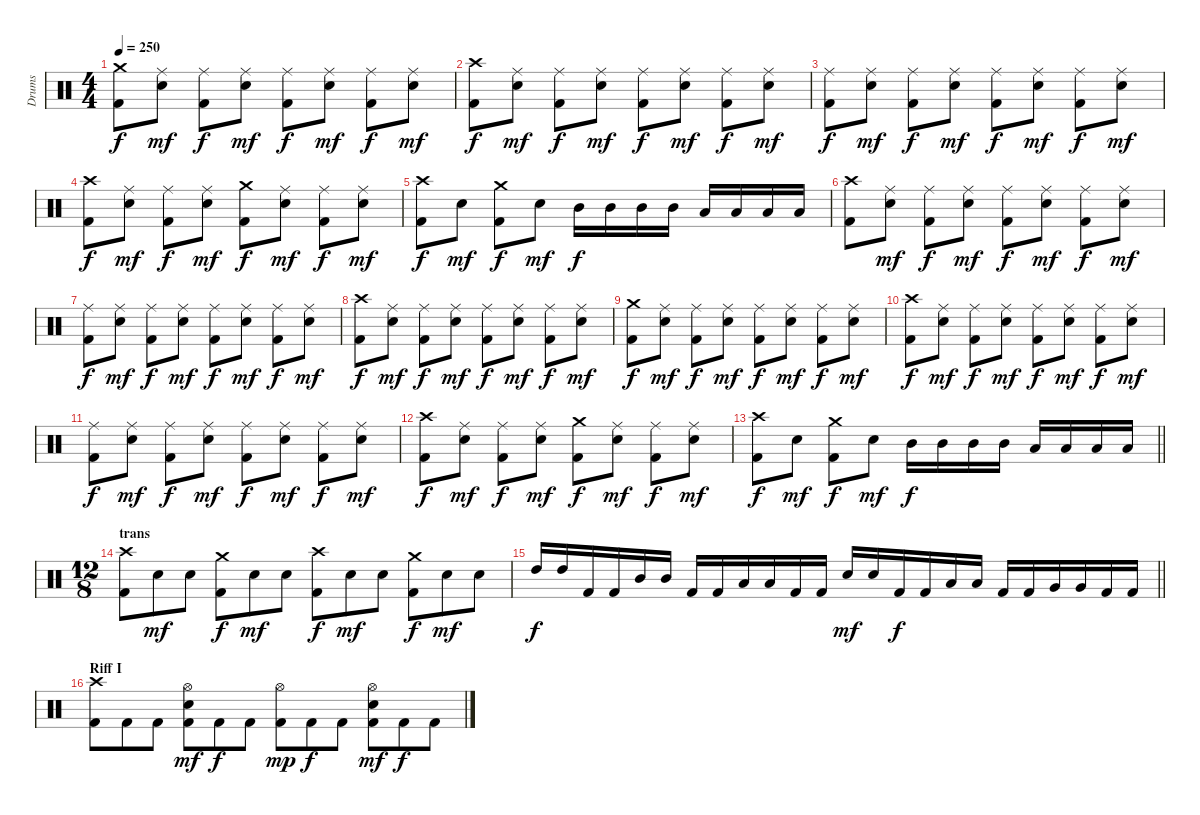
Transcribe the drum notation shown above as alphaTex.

\track ("Drums" "Drums") {instrument percussion}
\staff {score}
\articulation defaults
\ts (4 4)
\tempo 250
\clef neutral
\ks c
("Crash medium (hit)" "Kick (hit) 2").8{dy f} ("Ride (middle)" "Electric Snare (hit)").8{dy mf} ("Ride (middle)" "Kick (hit) 2").8{dy f} ("Ride (middle)" "Electric Snare (hit)").8{dy mf} ("Ride (middle)" "Kick (hit) 2").8{dy f} ("Ride (middle)" "Electric Snare (hit)").8{dy mf} ("Ride (middle)" "Kick (hit) 2").8{dy f} ("Ride (middle)" "Electric Snare (hit)").8{dy mf} |
("Crash high (hit)" "Kick (hit) 2").8{dy f} ("Ride (middle)" "Electric Snare (hit)").8{dy mf} ("Ride (middle)" "Kick (hit) 2").8{dy f} ("Ride (middle)" "Electric Snare (hit)").8{dy mf} ("Ride (middle)" "Kick (hit) 2").8{dy f} ("Ride (middle)" "Electric Snare (hit)").8{dy mf} ("Ride (middle)" "Kick (hit) 2").8{dy f} ("Ride (middle)" "Electric Snare (hit)").8{dy mf} |
("Ride (middle)" "Kick (hit) 2").8{dy f} ("Ride (middle)" "Electric Snare (hit)").8{dy mf} ("Ride (middle)" "Kick (hit) 2").8{dy f} ("Ride (middle)" "Electric Snare (hit)").8{dy mf} ("Ride (middle)" "Kick (hit) 2").8{dy f} ("Ride (middle)" "Electric Snare (hit)").8{dy mf} ("Ride (middle)" "Kick (hit) 2").8{dy f} ("Ride (middle)" "Electric Snare (hit)").8{dy mf} |
("Crash high (hit)" "Kick (hit) 2").8{dy f} ("Ride (middle)" "Electric Snare (hit)").8{dy mf} ("Ride (middle)" "Kick (hit) 2").8{dy f} ("Ride (middle)" "Electric Snare (hit)").8{dy mf} ("Crash medium (hit)" "Kick (hit) 2").8{dy f} ("Ride (middle)" "Electric Snare (hit)").8{dy mf} ("Ride (middle)" "Kick (hit) 2").8{dy f} ("Ride (middle)" "Electric Snare (hit)").8{dy mf} |
("Crash high (hit)" "Kick (hit) 2").8{dy f} "Electric Snare (hit)".8{dy mf} ("Crash medium (hit)" "Kick (hit) 2").8{dy f} "Electric Snare (hit)".8{dy mf} "Mid Tom (hit)".16{dy f} "Mid Tom (hit)".16 "Mid Tom (hit)".16 "Mid Tom (hit)".16 "Low Tom (hit)".16 "Low Tom (hit)".16 "Low Tom (hit)".16 "Low Tom (hit)".16 |
("Crash high (hit)" "Kick (hit) 2").8 ("Ride (middle)" "Electric Snare (hit)").8{dy mf} ("Ride (middle)" "Kick (hit) 2").8{dy f} ("Ride (middle)" "Electric Snare (hit)").8{dy mf} ("Ride (middle)" "Kick (hit) 2").8{dy f} ("Ride (middle)" "Electric Snare (hit)").8{dy mf} ("Ride (middle)" "Kick (hit) 2").8{dy f} ("Ride (middle)" "Electric Snare (hit)").8{dy mf} |
("Ride (middle)" "Kick (hit) 2").8{dy f} ("Ride (middle)" "Electric Snare (hit)").8{dy mf} ("Ride (middle)" "Kick (hit) 2").8{dy f} ("Ride (middle)" "Electric Snare (hit)").8{dy mf} ("Ride (middle)" "Kick (hit) 2").8{dy f} ("Ride (middle)" "Electric Snare (hit)").8{dy mf} ("Ride (middle)" "Kick (hit) 2").8{dy f} ("Ride (middle)" "Electric Snare (hit)").8{dy mf} |
("Crash high (hit)" "Kick (hit) 2").8{dy f} ("Ride (middle)" "Electric Snare (hit)").8{dy mf} ("Ride (middle)" "Kick (hit) 2").8{dy f} ("Ride (middle)" "Electric Snare (hit)").8{dy mf} ("Ride (middle)" "Kick (hit) 2").8{dy f} ("Ride (middle)" "Electric Snare (hit)").8{dy mf} ("Ride (middle)" "Kick (hit) 2").8{dy f} ("Ride (middle)" "Electric Snare (hit)").8{dy mf} |
("Crash medium (hit)" "Kick (hit) 2").8{dy f} ("Ride (middle)" "Electric Snare (hit)").8{dy mf} ("Ride (middle)" "Kick (hit) 2").8{dy f} ("Ride (middle)" "Electric Snare (hit)").8{dy mf} ("Ride (middle)" "Kick (hit) 2").8{dy f} ("Ride (middle)" "Electric Snare (hit)").8{dy mf} ("Ride (middle)" "Kick (hit) 2").8{dy f} ("Ride (middle)" "Electric Snare (hit)").8{dy mf} |
("Crash high (hit)" "Kick (hit) 2").8{dy f} ("Ride (middle)" "Electric Snare (hit)").8{dy mf} ("Ride (middle)" "Kick (hit) 2").8{dy f} ("Ride (middle)" "Electric Snare (hit)").8{dy mf} ("Ride (middle)" "Kick (hit) 2").8{dy f} ("Ride (middle)" "Electric Snare (hit)").8{dy mf} ("Ride (middle)" "Kick (hit) 2").8{dy f} ("Ride (middle)" "Electric Snare (hit)").8{dy mf} |
("Ride (middle)" "Kick (hit) 2").8{dy f} ("Ride (middle)" "Electric Snare (hit)").8{dy mf} ("Ride (middle)" "Kick (hit) 2").8{dy f} ("Ride (middle)" "Electric Snare (hit)").8{dy mf} ("Ride (middle)" "Kick (hit) 2").8{dy f} ("Ride (middle)" "Electric Snare (hit)").8{dy mf} ("Ride (middle)" "Kick (hit) 2").8{dy f} ("Ride (middle)" "Electric Snare (hit)").8{dy mf} |
("Crash high (hit)" "Kick (hit) 2").8{dy f} ("Ride (middle)" "Electric Snare (hit)").8{dy mf} ("Ride (middle)" "Kick (hit) 2").8{dy f} ("Ride (middle)" "Electric Snare (hit)").8{dy mf} ("Crash medium (hit)" "Kick (hit) 2").8{dy f} ("Ride (middle)" "Electric Snare (hit)").8{dy mf} ("Ride (middle)" "Kick (hit) 2").8{dy f} ("Ride (middle)" "Electric Snare (hit)").8{dy mf} |
\barLineRight lightlight
("Crash high (hit)" "Kick (hit) 2").8{dy f} "Electric Snare (hit)".8{dy mf} ("Crash medium (hit)" "Kick (hit) 2").8{dy f} "Electric Snare (hit)".8{dy mf} "Mid Tom (hit)".16{dy f} "Mid Tom (hit)".16 "Mid Tom (hit)".16 "Mid Tom (hit)".16 "Low Tom (hit)".16 "Low Tom (hit)".16 "Low Tom (hit)".16 "Low Tom (hit)".16 |
\ts (12 8)
\section ("" "trans")
("Crash high (hit)" "Kick (hit) 2").8 "Electric Snare (hit)".8{dy mf} "Electric Snare (hit)".8 ("Crash medium (hit)" "Kick (hit) 2").8{dy f} "Electric Snare (hit)".8{dy mf} "Electric Snare (hit)".8 ("Crash high (hit)" "Kick (hit) 2").8{dy f} "Electric Snare (hit)".8{dy mf} "Electric Snare (hit)".8 ("Crash medium (hit)" "Kick (hit) 2").8{dy f} "Electric Snare (hit)".8{dy mf} "Electric Snare (hit)".8 |
\barLineRight lightlight "High Tom (hit)".16{dy f} "High Tom (hit)".16 "Kick (hit) 2".16 "Kick (hit) 2".16 "Mid Tom (hit)".16 "Mid Tom (hit)".16 "Kick (hit) 2".16 "Kick (hit) 2".16 "Low Tom (hit)".16 "Low Tom (hit)".16 "Kick (hit) 2".16 "Kick (hit) 2".16 "Electric Snare (hit)".16{dy mf} "Electric Snare (hit)".16 "Kick (hit) 2".16{dy f} "Kick (hit) 2".16 "Low Tom (hit)".16 "Low Tom (hit)".16 "Kick (hit) 2".16 "Kick (hit) 2".16 "Very Low Tom (hit)".16 "Very Low Tom (hit)".16 "Kick (hit) 2".16 "Kick (hit) 2".16
|
\section ("" "Riff I")
("Crash high (hit)" "Kick (hit) 2").8 "Kick (hit) 2".8 "Kick (hit) 2".8 ("Hi-Hat (open)" "Electric Snare (hit)" "Kick (hit) 2").8{dy mf} "Kick (hit) 2".8{dy f} "Kick (hit) 2".8 ("Hi-Hat (open)" "Kick (hit) 2").8{dy mp} "Kick (hit) 2".8{dy f} "Kick (hit) 2".8 ("Hi-Hat (open)" "Electric Snare (hit)" "Kick (hit) 2").8{dy mf} "Kick (hit) 2".8{dy f} "Kick (hit) 2".8
